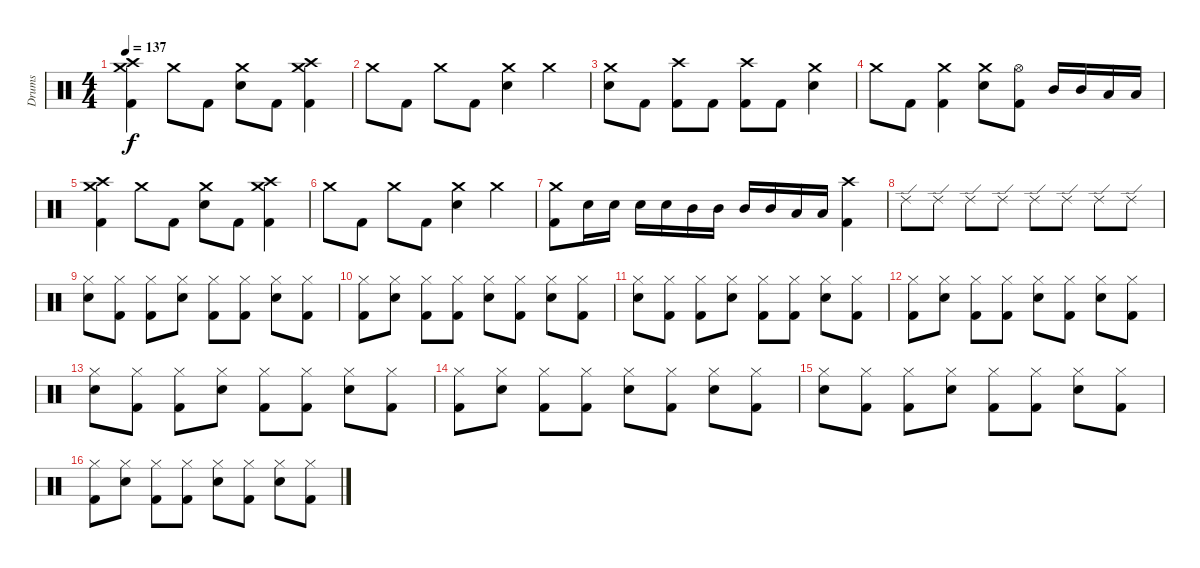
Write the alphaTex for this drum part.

\track ("Drums" "Drums") {instrument percussion}
\staff {score}
\articulation defaults
\ts (4 4)
\tempo 137
\clef neutral
\ks c
("Crash medium (hit)" "Crash high (hit)" "Kick (hit) 2").4{dy f} "Crash medium (hit)".8 "Kick (hit) 2".8 ("Crash medium (hit)" "Electric Snare (hit)").8 "Kick (hit) 2".8 ("Crash medium (hit)" "Crash high (hit)" "Kick (hit) 2").4 |
"Crash medium (hit)".8 "Kick (hit) 2".8 "Crash medium (hit)".8 "Kick (hit) 2".8 ("Crash medium (hit)" "Electric Snare (hit)").4 "Crash medium (hit)".4 |
("Crash medium (hit)" "Electric Snare (hit)").8 "Kick (hit) 2".8 ("Crash high (hit)" "Kick (hit) 2").8 "Kick (hit) 2".8 ("Crash high (hit)" "Kick (hit) 2").8 "Kick (hit) 2".8 ("Crash medium (hit)" "Electric Snare (hit)").4 |
"Crash medium (hit)".8 "Kick (hit) 2".8 ("Crash medium (hit)" "Kick (hit) 2").4 ("Crash medium (hit)" "Electric Snare (hit)").8 ("Hi-Hat (open)" "Kick (hit) 2").8 "Mid Tom (hit)".16 "Mid Tom (hit)".16 "Low Tom (hit)".16 "Low Tom (hit)".16 |
("Crash medium (hit)" "Crash high (hit)" "Kick (hit) 2").4 "Crash medium (hit)".8 "Kick (hit) 2".8 ("Crash medium (hit)" "Electric Snare (hit)").8 "Kick (hit) 2".8 ("Crash medium (hit)" "Crash high (hit)" "Kick (hit) 2").4 |
"Crash medium (hit)".8 "Kick (hit) 2".8 "Crash medium (hit)".8 "Kick (hit) 2".8 ("Crash medium (hit)" "Electric Snare (hit)").4 "Crash medium (hit)".4 |
("Crash medium (hit)" "Kick (hit) 2").8 "Electric Snare (hit)".16 "Electric Snare (hit)".16 "Electric Snare (hit)".16 "Electric Snare (hit)".16 "Mid Tom (hit)".16 "Mid Tom (hit)".16 "Mid Tom (hit)".16 "Mid Tom (hit)".16 "Low Tom (hit)".16 "Low Tom (hit)".16 ("Crash high (hit)" "Kick (hit) 2").4 |
"Ride (edge) 2".8 "Ride (edge) 2".8 "Ride (edge) 2".8 "Ride (edge) 2".8 "Ride (edge) 2".8 "Ride (edge) 2".8 "Ride (edge) 2".8 "Ride (edge) 2".8 |
("Hi-Hat (closed)" "Electric Snare (hit)").8 ("Hi-Hat (closed)" "Kick (hit) 2").8 ("Hi-Hat (closed)" "Kick (hit) 2").8 ("Hi-Hat (closed)" "Electric Snare (hit)").8 ("Hi-Hat (closed)" "Kick (hit) 2").8 ("Hi-Hat (closed)" "Kick (hit) 2").8 ("Hi-Hat (closed)" "Electric Snare (hit)").8 ("Hi-Hat (closed)" "Kick (hit) 2").8 |
("Hi-Hat (closed)" "Kick (hit) 2").8 ("Hi-Hat (closed)" "Electric Snare (hit)").8 ("Hi-Hat (closed)" "Kick (hit) 2").8 ("Hi-Hat (closed)" "Kick (hit) 2").8 ("Hi-Hat (closed)" "Electric Snare (hit)").8 ("Hi-Hat (closed)" "Kick (hit) 2").8 ("Hi-Hat (closed)" "Electric Snare (hit)").8 ("Hi-Hat (closed)" "Kick (hit) 2").8 |
("Hi-Hat (closed)" "Electric Snare (hit)").8 ("Hi-Hat (closed)" "Kick (hit) 2").8 ("Hi-Hat (closed)" "Kick (hit) 2").8 ("Hi-Hat (closed)" "Electric Snare (hit)").8 ("Hi-Hat (closed)" "Kick (hit) 2").8 ("Hi-Hat (closed)" "Kick (hit) 2").8 ("Hi-Hat (closed)" "Electric Snare (hit)").8 ("Hi-Hat (closed)" "Kick (hit) 2").8 |
("Hi-Hat (closed)" "Kick (hit) 2").8 ("Hi-Hat (closed)" "Electric Snare (hit)").8 ("Hi-Hat (closed)" "Kick (hit) 2").8 ("Hi-Hat (closed)" "Kick (hit) 2").8 ("Hi-Hat (closed)" "Electric Snare (hit)").8 ("Hi-Hat (closed)" "Kick (hit) 2").8 ("Hi-Hat (closed)" "Electric Snare (hit)").8 ("Hi-Hat (closed)" "Kick (hit) 2").8 |
("Hi-Hat (closed)" "Electric Snare (hit)").8 ("Hi-Hat (closed)" "Kick (hit) 2").8 ("Hi-Hat (closed)" "Kick (hit) 2").8 ("Hi-Hat (closed)" "Electric Snare (hit)").8 ("Hi-Hat (closed)" "Kick (hit) 2").8 ("Hi-Hat (closed)" "Kick (hit) 2").8 ("Hi-Hat (closed)" "Electric Snare (hit)").8 ("Hi-Hat (closed)" "Kick (hit) 2").8 |
("Hi-Hat (closed)" "Kick (hit) 2").8 ("Hi-Hat (closed)" "Electric Snare (hit)").8 ("Hi-Hat (closed)" "Kick (hit) 2").8 ("Hi-Hat (closed)" "Kick (hit) 2").8 ("Hi-Hat (closed)" "Electric Snare (hit)").8 ("Hi-Hat (closed)" "Kick (hit) 2").8 ("Hi-Hat (closed)" "Electric Snare (hit)").8 ("Hi-Hat (closed)" "Kick (hit) 2").8 |
("Hi-Hat (closed)" "Electric Snare (hit)").8 ("Hi-Hat (closed)" "Kick (hit) 2").8 ("Hi-Hat (closed)" "Kick (hit) 2").8 ("Hi-Hat (closed)" "Electric Snare (hit)").8 ("Hi-Hat (closed)" "Kick (hit) 2").8 ("Hi-Hat (closed)" "Kick (hit) 2").8 ("Hi-Hat (closed)" "Electric Snare (hit)").8 ("Hi-Hat (closed)" "Kick (hit) 2").8 |
("Hi-Hat (closed)" "Kick (hit) 2").8 ("Hi-Hat (closed)" "Electric Snare (hit)").8 ("Hi-Hat (closed)" "Kick (hit) 2").8 ("Hi-Hat (closed)" "Kick (hit) 2").8 ("Hi-Hat (closed)" "Electric Snare (hit)").8 ("Hi-Hat (closed)" "Kick (hit) 2").8 ("Hi-Hat (closed)" "Electric Snare (hit)").8 ("Hi-Hat (closed)" "Kick (hit) 2").8
